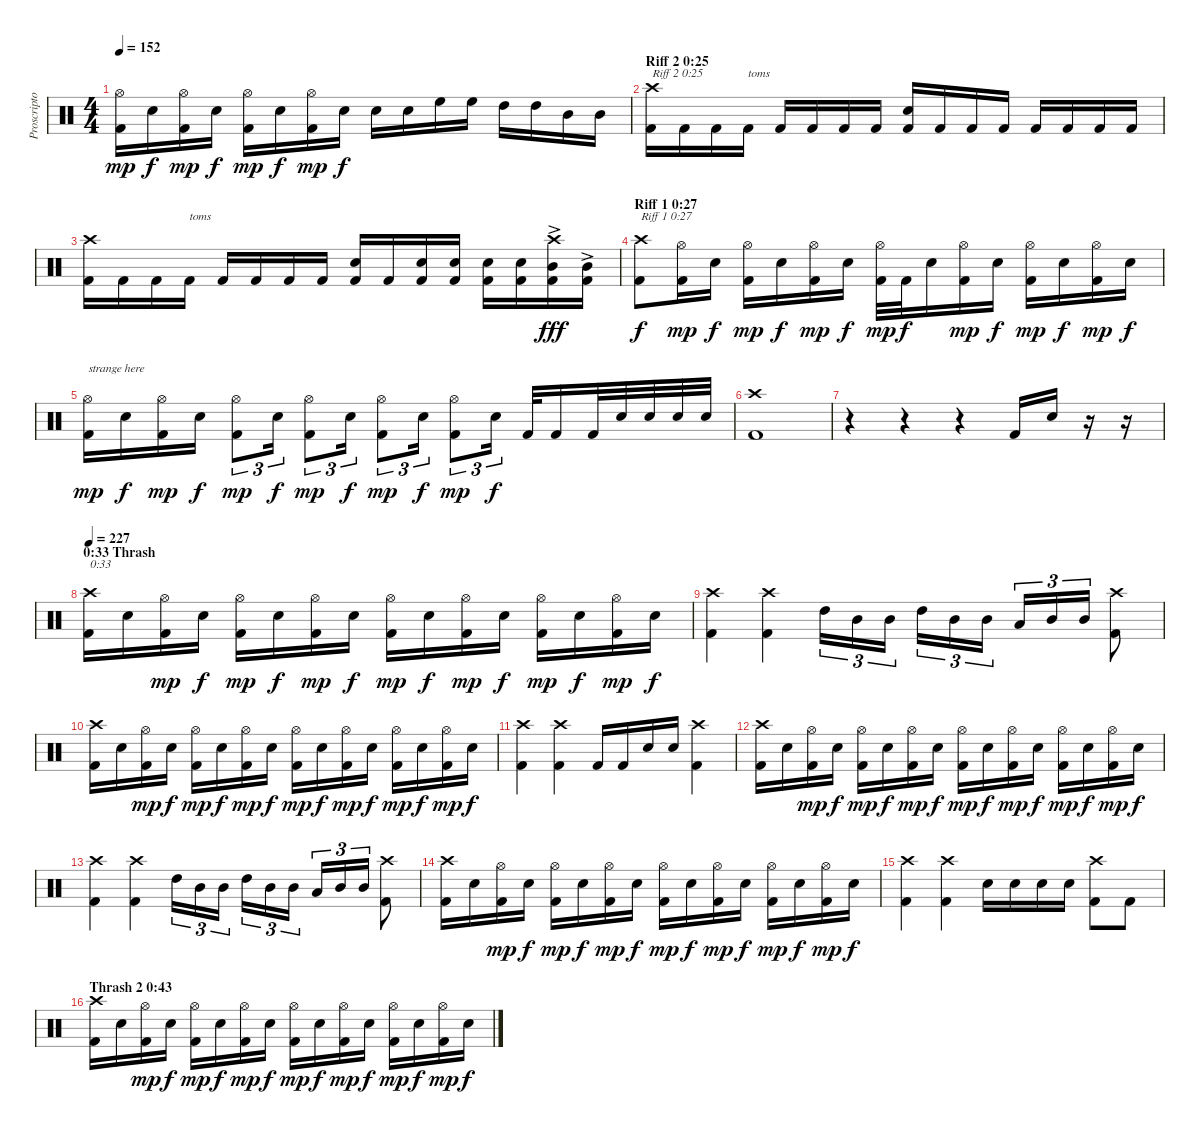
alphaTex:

\track ("Proscriptor (Drums)" "Proscripto") {instrument percussion}
\staff {score}
\articulation defaults
\ts (4 4)
\tempo 152
\clef neutral
\ks c
("Kick (hit) 2" "Hi-Hat (open)").16{dy mp} "Electric Snare (hit)".16{dy f} ("Kick (hit) 2" "Hi-Hat (open)").16{dy mp} "Electric Snare (hit)".16{dy f} ("Kick (hit) 2" "Hi-Hat (open)").16{dy mp} "Electric Snare (hit)".16{dy f} ("Kick (hit) 2" "Hi-Hat (open)").16{dy mp} "Electric Snare (hit)".16{dy f} "Electric Snare (hit)".16 "Electric Snare (hit)".16 "High Floor Tom (hit)".16 "High Floor Tom (hit)".16 "High Tom (hit)".16 "High Tom (hit)".16 "Mid Tom (hit)".16 "Mid Tom (hit)".16 |
\section ("" "Riff 2 0:25")
("Kick (hit) 2" "Crash high (hit)").16{txt "Riff 2 0:25"} "Kick (hit) 2".16 "Kick (hit) 2".16 "Kick (hit) 2".16{txt "toms"} "Kick (hit) 2".16 "Kick (hit) 2".16 "Kick (hit) 2".16 "Kick (hit) 2".16 ("Kick (hit) 2" "Electric Snare (hit)").16 "Kick (hit) 2".16 "Kick (hit) 2".16 "Kick (hit) 2".16 "Kick (hit) 2".16 "Kick (hit) 2".16 "Kick (hit) 2".16 "Kick (hit) 2".16 |
("Kick (hit) 2" "Crash high (hit)").16 "Kick (hit) 2".16 "Kick (hit) 2".16 "Kick (hit) 2".16{txt "toms"} "Kick (hit) 2".16 "Kick (hit) 2".16 "Kick (hit) 2".16 "Kick (hit) 2".16 ("Kick (hit) 2" "Electric Snare (hit)").16 "Kick (hit) 2".16 ("Kick (hit) 2" "Electric Snare (hit)").16 ("Kick (hit) 2" "Electric Snare (hit)").16 ("Kick (hit) 2" "Electric Snare (hit)").16 ("Kick (hit) 2" "Electric Snare (hit)").16 ("Kick (hit) 2" "Mid Tom (hit)"{ac} "Crash high (hit)").16{dy fff} ("Kick (hit) 2" "Mid Tom (hit)"{ac}).16 |
\section ("" "Riff 1 0:27")
("Kick (hit) 2" "Crash high (hit)").8{txt "Riff 1 0:27" dy f} ("Kick (hit) 2" "Hi-Hat (open)").16{dy mp} "Electric Snare (hit)".16{dy f} ("Kick (hit) 2" "Hi-Hat (open)").16{dy mp} "Electric Snare (hit)".16{dy f} ("Kick (hit) 2" "Hi-Hat (open)").16{dy mp} "Electric Snare (hit)".16{dy f} ("Kick (hit) 2" "Hi-Hat (open)").32{dy mp} "Kick (hit) 2".32{dy f} "Electric Snare (hit)".16 ("Kick (hit) 2" "Hi-Hat (open)").16{dy mp} "Electric Snare (hit)".16{dy f} ("Kick (hit) 2" "Hi-Hat (open)").16{dy mp} "Electric Snare (hit)".16{dy f} ("Kick (hit) 2" "Hi-Hat (open)").16{dy mp} "Electric Snare (hit)".16{dy f} |
("Kick (hit) 2" "Hi-Hat (open)").16{txt "strange here" dy mp} "Electric Snare (hit)".16{dy f} ("Kick (hit) 2" "Hi-Hat (open)").16{dy mp} "Electric Snare (hit)".16{dy f} ("Kick (hit) 2" "Hi-Hat (open)").8{tu (3 2) dy mp} "Electric Snare (hit)".16{tu (3 2) dy f} ("Kick (hit) 2" "Hi-Hat (open)").8{tu (3 2) dy mp} "Electric Snare (hit)".16{tu (3 2) dy f} ("Kick (hit) 2" "Hi-Hat (open)").8{tu (3 2) dy mp} "Electric Snare (hit)".16{tu (3 2) dy f} ("Kick (hit) 2" "Hi-Hat (open)").8{tu (3 2) dy mp} "Electric Snare (hit)".16{tu (3 2) dy f} "Kick (hit) 2".32 "Kick (hit) 2".16 "Kick (hit) 2".32 "Electric Snare (hit)".32 "Electric Snare (hit)".32 "Electric Snare (hit)".32 "Electric Snare (hit)".32 |
("Kick (hit) 2" "Crash high (hit)").1 |
r.4 r.4 r.4 "Kick (hit) 2".16 "Electric Snare (hit)".16 r.16 r.16 |
\section ("" "0:33 Thrash")
\tempo 227
("Kick (hit) 2" "Crash high (hit)").16{txt "0:33"} "Electric Snare (hit)".16 ("Kick (hit) 2" "Hi-Hat (open)").16{dy mp} "Electric Snare (hit)".16{dy f} ("Kick (hit) 2" "Hi-Hat (open)").16{dy mp} "Electric Snare (hit)".16{dy f} ("Kick (hit) 2" "Hi-Hat (open)").16{dy mp} "Electric Snare (hit)".16{dy f} ("Kick (hit) 2" "Hi-Hat (open)").16{dy mp} "Electric Snare (hit)".16{dy f} ("Kick (hit) 2" "Hi-Hat (open)").16{dy mp} "Electric Snare (hit)".16{dy f} ("Kick (hit) 2" "Hi-Hat (open)").16{dy mp} "Electric Snare (hit)".16{dy f} ("Kick (hit) 2" "Hi-Hat (open)").16{dy mp} "Electric Snare (hit)".16{dy f} |
("Kick (hit) 2" "Crash high (hit)").4 ("Kick (hit) 2" "Crash high (hit)").4 "High Tom (hit)".16{tu (3 2)} "Mid Tom (hit)".16{tu (3 2)} "Mid Tom (hit)".16{tu (3 2)} "High Tom (hit)".16{tu (3 2)} "Mid Tom (hit)".16{tu (3 2)} "Mid Tom (hit)".16{tu (3 2)} "Low Tom (hit)".16{tu (3 2)} "Mid Tom (hit)".16{tu (3 2)} "Mid Tom (hit)".16{tu (3 2)} ("Kick (hit) 2" "Crash high (hit)").8 |
("Kick (hit) 2" "Crash high (hit)").16 "Electric Snare (hit)".16 ("Kick (hit) 2" "Hi-Hat (open)").16{dy mp} "Electric Snare (hit)".16{dy f} ("Kick (hit) 2" "Hi-Hat (open)").16{dy mp} "Electric Snare (hit)".16{dy f} ("Kick (hit) 2" "Hi-Hat (open)").16{dy mp} "Electric Snare (hit)".16{dy f} ("Kick (hit) 2" "Hi-Hat (open)").16{dy mp} "Electric Snare (hit)".16{dy f} ("Kick (hit) 2" "Hi-Hat (open)").16{dy mp} "Electric Snare (hit)".16{dy f} ("Kick (hit) 2" "Hi-Hat (open)").16{dy mp} "Electric Snare (hit)".16{dy f} ("Kick (hit) 2" "Hi-Hat (open)").16{dy mp} "Electric Snare (hit)".16{dy f} |
("Kick (hit) 2" "Crash high (hit)").4 ("Kick (hit) 2" "Crash high (hit)").4 "Kick (hit) 2".16 "Kick (hit) 2".16 "Electric Snare (hit)".16 "Electric Snare (hit)".16 ("Kick (hit) 2" "Crash high (hit)").4 |
("Kick (hit) 2" "Crash high (hit)").16 "Electric Snare (hit)".16 ("Kick (hit) 2" "Hi-Hat (open)").16{dy mp} "Electric Snare (hit)".16{dy f} ("Kick (hit) 2" "Hi-Hat (open)").16{dy mp} "Electric Snare (hit)".16{dy f} ("Kick (hit) 2" "Hi-Hat (open)").16{dy mp} "Electric Snare (hit)".16{dy f} ("Kick (hit) 2" "Hi-Hat (open)").16{dy mp} "Electric Snare (hit)".16{dy f} ("Kick (hit) 2" "Hi-Hat (open)").16{dy mp} "Electric Snare (hit)".16{dy f} ("Kick (hit) 2" "Hi-Hat (open)").16{dy mp} "Electric Snare (hit)".16{dy f} ("Kick (hit) 2" "Hi-Hat (open)").16{dy mp} "Electric Snare (hit)".16{dy f} |
("Kick (hit) 2" "Crash high (hit)").4 ("Kick (hit) 2" "Crash high (hit)").4 "High Tom (hit)".16{tu (3 2)} "Mid Tom (hit)".16{tu (3 2)} "Mid Tom (hit)".16{tu (3 2)} "High Tom (hit)".16{tu (3 2)} "Mid Tom (hit)".16{tu (3 2)} "Mid Tom (hit)".16{tu (3 2)} "Low Tom (hit)".16{tu (3 2)} "Mid Tom (hit)".16{tu (3 2)} "Mid Tom (hit)".16{tu (3 2)} ("Kick (hit) 2" "Crash high (hit)").8 |
("Kick (hit) 2" "Crash high (hit)").16 "Electric Snare (hit)".16 ("Kick (hit) 2" "Hi-Hat (open)").16{dy mp} "Electric Snare (hit)".16{dy f} ("Kick (hit) 2" "Hi-Hat (open)").16{dy mp} "Electric Snare (hit)".16{dy f} ("Kick (hit) 2" "Hi-Hat (open)").16{dy mp} "Electric Snare (hit)".16{dy f} ("Kick (hit) 2" "Hi-Hat (open)").16{dy mp} "Electric Snare (hit)".16{dy f} ("Kick (hit) 2" "Hi-Hat (open)").16{dy mp} "Electric Snare (hit)".16{dy f} ("Kick (hit) 2" "Hi-Hat (open)").16{dy mp} "Electric Snare (hit)".16{dy f} ("Kick (hit) 2" "Hi-Hat (open)").16{dy mp} "Electric Snare (hit)".16{dy f} |
("Kick (hit) 2" "Crash high (hit)").4 ("Kick (hit) 2" "Crash high (hit)").4 "Electric Snare (hit)".16 "Electric Snare (hit)".16 "Electric Snare (hit)".16 "Electric Snare (hit)".16 ("Kick (hit) 2" "Crash high (hit)").8 "Kick (hit) 2".8 |
\section ("" "Thrash 2 0:43")
("Kick (hit) 2" "Crash high (hit)").16 "Electric Snare (hit)".16 ("Kick (hit) 2" "Hi-Hat (open)").16{dy mp} "Electric Snare (hit)".16{dy f} ("Kick (hit) 2" "Hi-Hat (open)").16{dy mp} "Electric Snare (hit)".16{dy f} ("Kick (hit) 2" "Hi-Hat (open)").16{dy mp} "Electric Snare (hit)".16{dy f} ("Kick (hit) 2" "Hi-Hat (open)").16{dy mp} "Electric Snare (hit)".16{dy f} ("Kick (hit) 2" "Hi-Hat (open)").16{dy mp} "Electric Snare (hit)".16{dy f} ("Kick (hit) 2" "Hi-Hat (open)").16{dy mp} "Electric Snare (hit)".16{dy f} ("Kick (hit) 2" "Hi-Hat (open)").16{dy mp} "Electric Snare (hit)".16{dy f}
